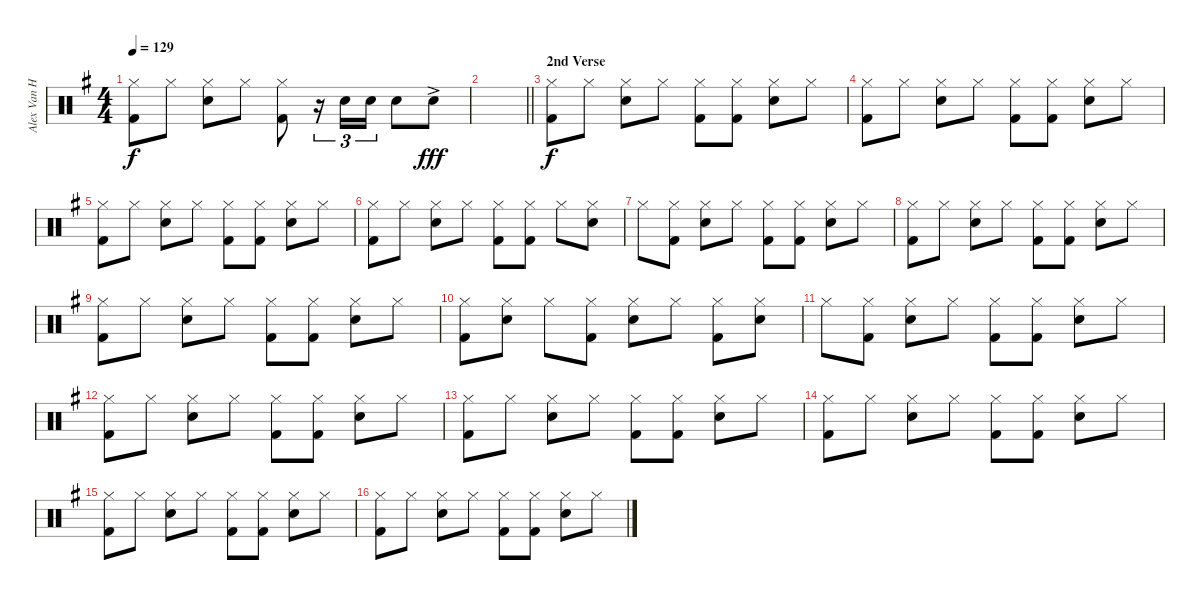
\track ("Alex Van Halen" "Alex Van H") {instrument percussion}
\staff {score}
\articulation defaults
\ts (4 4)
\tempo 129
\clef neutral
\ks eminor
("Hi-Hat (closed)" "Kick (hit) 2").8{dy f} "Hi-Hat (closed)".8 ("Hi-Hat (closed)" "Snare (hit) 2").8 "Hi-Hat (closed)".8 ("Hi-Hat (closed)" "Kick (hit) 2").8 r.16{tu (3 2)} "Electric Snare (hit)".16{tu (3 2)} "Electric Snare (hit)".16{tu (3 2)} "Electric Snare (hit)".8 "Snare (hit) 2"{ac}.8{dy fff} |
\barLineRight lightlight
|
\section ("" "2nd Verse")
("Hi-Hat (closed)" "Kick (hit) 2").8{dy f} "Hi-Hat (closed)".8 ("Hi-Hat (closed)" "Snare (hit) 2").8 "Hi-Hat (closed)".8 ("Hi-Hat (closed)" "Kick (hit) 2").8 ("Hi-Hat (closed)" "Kick (hit) 2").8 ("Hi-Hat (closed)" "Snare (hit) 2").8 "Hi-Hat (closed)".8 |
("Hi-Hat (closed)" "Kick (hit) 2").8 "Hi-Hat (closed)".8 ("Hi-Hat (closed)" "Snare (hit) 2").8 "Hi-Hat (closed)".8 ("Hi-Hat (closed)" "Kick (hit) 2").8 ("Hi-Hat (closed)" "Kick (hit) 2").8 ("Hi-Hat (closed)" "Snare (hit) 2").8 "Hi-Hat (closed)".8 |
("Hi-Hat (closed)" "Kick (hit) 2").8 "Hi-Hat (closed)".8 ("Hi-Hat (closed)" "Snare (hit) 2").8 "Hi-Hat (closed)".8 ("Hi-Hat (closed)" "Kick (hit) 2").8 ("Hi-Hat (closed)" "Kick (hit) 2").8 ("Hi-Hat (closed)" "Snare (hit) 2").8 "Hi-Hat (closed)".8 |
("Hi-Hat (closed)" "Kick (hit) 2").8 "Hi-Hat (closed)".8 ("Hi-Hat (closed)" "Snare (hit) 2").8 "Hi-Hat (closed)".8 ("Hi-Hat (closed)" "Kick (hit) 2").8 ("Hi-Hat (closed)" "Kick (hit) 2").8 "Hi-Hat (closed)".8 ("Hi-Hat (closed)" "Snare (hit) 2").8 |
"Hi-Hat (closed)".8 ("Hi-Hat (closed)" "Kick (hit) 2").8 ("Hi-Hat (closed)" "Snare (hit) 2").8 "Hi-Hat (closed)".8 ("Hi-Hat (closed)" "Kick (hit) 2").8 ("Hi-Hat (closed)" "Kick (hit) 2").8 ("Hi-Hat (closed)" "Snare (hit) 2").8 "Hi-Hat (closed)".8 |
("Hi-Hat (closed)" "Kick (hit) 2").8 "Hi-Hat (closed)".8 ("Hi-Hat (closed)" "Snare (hit) 2").8 "Hi-Hat (closed)".8 ("Hi-Hat (closed)" "Kick (hit) 2").8 ("Hi-Hat (closed)" "Kick (hit) 2").8 ("Hi-Hat (closed)" "Snare (hit) 2").8 "Hi-Hat (closed)".8 |
("Hi-Hat (closed)" "Kick (hit) 2").8 "Hi-Hat (closed)".8 ("Hi-Hat (closed)" "Snare (hit) 2").8 "Hi-Hat (closed)".8 ("Hi-Hat (closed)" "Kick (hit) 2").8 ("Hi-Hat (closed)" "Kick (hit) 2").8 ("Hi-Hat (closed)" "Snare (hit) 2").8 "Hi-Hat (closed)".8 |
("Hi-Hat (closed)" "Kick (hit) 2").8 ("Hi-Hat (closed)" "Snare (hit) 2").8 "Hi-Hat (closed)".8 ("Hi-Hat (closed)" "Kick (hit) 2").8 ("Hi-Hat (closed)" "Snare (hit) 2").8 "Hi-Hat (closed)".8 ("Hi-Hat (closed)" "Kick (hit) 2").8 ("Hi-Hat (closed)" "Snare (hit) 2").8 |
"Hi-Hat (closed)".8 ("Hi-Hat (closed)" "Kick (hit) 2").8 ("Hi-Hat (closed)" "Snare (hit) 2").8 "Hi-Hat (closed)".8 ("Hi-Hat (closed)" "Kick (hit) 2").8 ("Hi-Hat (closed)" "Kick (hit) 2").8 ("Hi-Hat (closed)" "Snare (hit) 2").8 "Hi-Hat (closed)".8 |
("Hi-Hat (closed)" "Kick (hit) 2").8 "Hi-Hat (closed)".8 ("Hi-Hat (closed)" "Snare (hit) 2").8 "Hi-Hat (closed)".8 ("Hi-Hat (closed)" "Kick (hit) 2").8 ("Hi-Hat (closed)" "Kick (hit) 2").8 ("Hi-Hat (closed)" "Snare (hit) 2").8 "Hi-Hat (closed)".8 |
("Hi-Hat (closed)" "Kick (hit) 2").8 "Hi-Hat (closed)".8 ("Hi-Hat (closed)" "Snare (hit) 2").8 "Hi-Hat (closed)".8 ("Hi-Hat (closed)" "Kick (hit) 2").8 ("Hi-Hat (closed)" "Kick (hit) 2").8 ("Hi-Hat (closed)" "Snare (hit) 2").8 "Hi-Hat (closed)".8 |
("Hi-Hat (closed)" "Kick (hit) 2").8 "Hi-Hat (closed)".8 ("Hi-Hat (closed)" "Snare (hit) 2").8 "Hi-Hat (closed)".8 ("Hi-Hat (closed)" "Kick (hit) 2").8 ("Hi-Hat (closed)" "Kick (hit) 2").8 ("Hi-Hat (closed)" "Snare (hit) 2").8 "Hi-Hat (closed)".8 |
("Hi-Hat (closed)" "Kick (hit) 2").8 "Hi-Hat (closed)".8 ("Hi-Hat (closed)" "Snare (hit) 2").8 "Hi-Hat (closed)".8 ("Hi-Hat (closed)" "Kick (hit) 2").8 ("Hi-Hat (closed)" "Kick (hit) 2").8 ("Hi-Hat (closed)" "Snare (hit) 2").8 "Hi-Hat (closed)".8 |
("Hi-Hat (closed)" "Kick (hit) 2").8 "Hi-Hat (closed)".8 ("Hi-Hat (closed)" "Snare (hit) 2").8 "Hi-Hat (closed)".8 ("Hi-Hat (closed)" "Kick (hit) 2").8 ("Hi-Hat (closed)" "Kick (hit) 2").8 ("Hi-Hat (closed)" "Snare (hit) 2").8 "Hi-Hat (closed)".8
